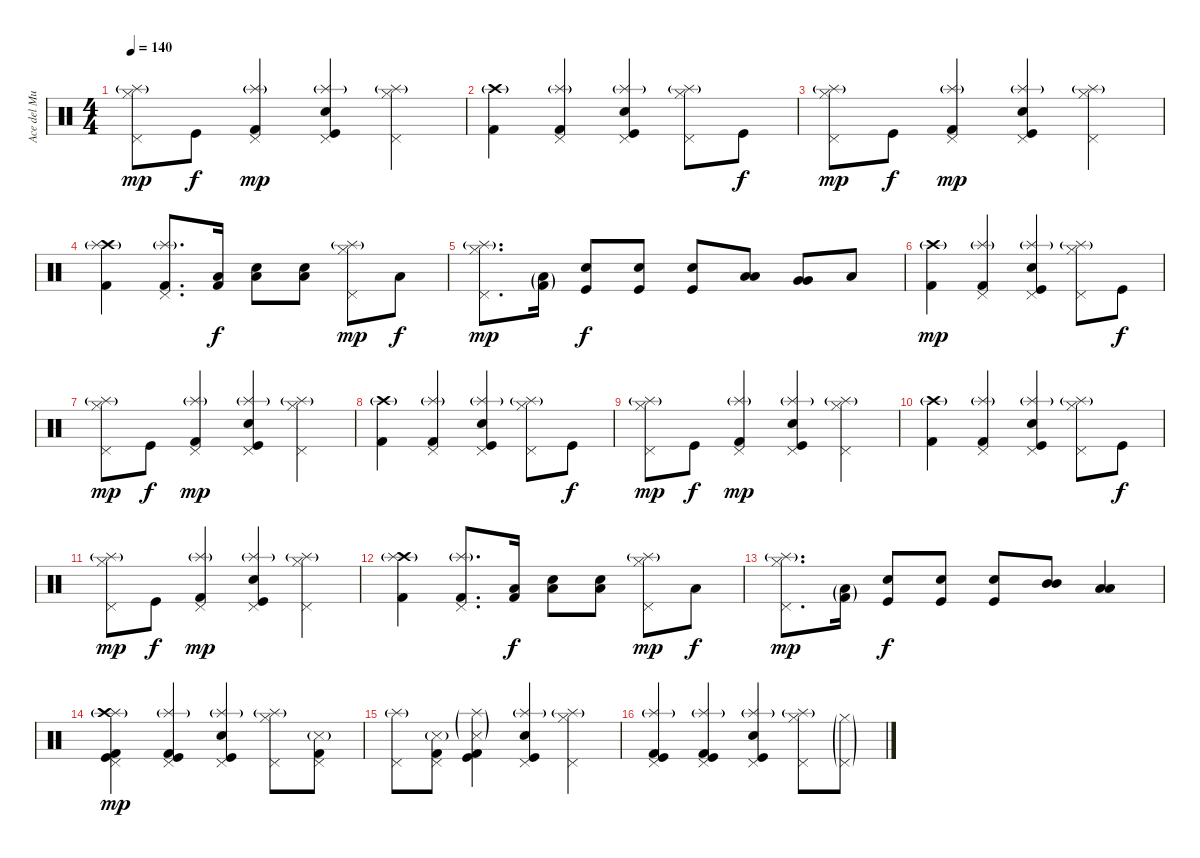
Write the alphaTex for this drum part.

\track ("Ace del Mundo(Drums)" "Ace del Mu") {instrument percussion}
\staff {score}
\articulation defaults
\ts (4 4)
\tempo 140
\clef neutral
\ks c
("Hi-Hat (closed)" "Pedal Hi-Hat (hit)" "Splash (hit)"{g}).8{dy mp} "Kick (hit)".8{dy f} ("Pedal Hi-Hat (hit)" "Kick (hit) 2" "Splash (hit)"{g}).4{dy mp} ("Pedal Hi-Hat (hit)" "Electric Snare (hit)" "Kick (hit)" "Splash (hit)"{g}).4 ("Hi-Hat (closed)" "Pedal Hi-Hat (hit)" "Splash (hit)"{g}).4 |
("Crash high (hit)"{g} "Kick (hit) 2").4 ("Pedal Hi-Hat (hit)" "Kick (hit) 2" "Splash (hit)"{g}).4 ("Pedal Hi-Hat (hit)" "Electric Snare (hit)" "Kick (hit)" "Splash (hit)"{g}).4 ("Hi-Hat (closed)" "Pedal Hi-Hat (hit)" "Splash (hit)"{g}).8 "Kick (hit)".8{dy f} |
("Hi-Hat (closed)" "Pedal Hi-Hat (hit)" "Splash (hit)"{g}).8{dy mp} "Kick (hit)".8{dy f} ("Pedal Hi-Hat (hit)" "Kick (hit) 2" "Splash (hit)"{g}).4{dy mp} ("Pedal Hi-Hat (hit)" "Electric Snare (hit)" "Kick (hit)" "Splash (hit)"{g}).4 ("Hi-Hat (closed)" "Pedal Hi-Hat (hit)" "Splash (hit)"{g}).4 |
("Crash high (hit)"{g} "Kick (hit) 2" "Splash (hit)"{g}).4 ("Pedal Hi-Hat (hit)" "Kick (hit) 2" "Splash (hit)"{g}).8{d} ("Low Tom (hit)" "Kick (hit) 2").16{dy f} ("Electric Snare (hit)" "Low Tom (hit)").8 ("Electric Snare (hit)" "Low Tom (hit)").8 ("Hi-Hat (closed)" "Pedal Hi-Hat (hit)" "Splash (hit)"{g}).8{dy mp} "Low Tom (hit)".8{dy f} |
("Pedal Hi-Hat (hit)" "Hi-Hat (closed)" "Splash (hit)"{g}).8{d dy mp} ("Low Tom (hit)"{g} "Kick (hit) 2"{g}).16 ("Electric Snare (hit)" "Kick (hit)").8{dy f} ("Electric Snare (hit)" "Kick (hit)").8 ("Electric Snare (hit)" "Kick (hit)").8 ("Low Tom (hit)" "Low Tom (hit)").8 ("Very Low Tom (hit)" "Very Low Tom (hit)").8 "Low Floor Tom (hit)".8 |
("Crash high (hit)"{g} "Kick (hit) 2").4{dy mp} ("Pedal Hi-Hat (hit)" "Kick (hit) 2" "Splash (hit)"{g}).4 ("Pedal Hi-Hat (hit)" "Electric Snare (hit)" "Kick (hit)" "Splash (hit)"{g}).4 ("Hi-Hat (closed)" "Pedal Hi-Hat (hit)" "Splash (hit)"{g}).8 "Kick (hit)".8{dy f} |
("Hi-Hat (closed)" "Pedal Hi-Hat (hit)" "Splash (hit)"{g}).8{dy mp} "Kick (hit)".8{dy f} ("Pedal Hi-Hat (hit)" "Kick (hit) 2" "Splash (hit)"{g}).4{dy mp} ("Pedal Hi-Hat (hit)" "Electric Snare (hit)" "Kick (hit)" "Splash (hit)"{g}).4 ("Hi-Hat (closed)" "Pedal Hi-Hat (hit)" "Splash (hit)"{g}).4 |
("Crash high (hit)"{g} "Kick (hit) 2").4 ("Pedal Hi-Hat (hit)" "Kick (hit) 2" "Splash (hit)"{g}).4 ("Pedal Hi-Hat (hit)" "Electric Snare (hit)" "Kick (hit)" "Splash (hit)"{g}).4 ("Hi-Hat (closed)" "Pedal Hi-Hat (hit)" "Splash (hit)"{g}).8 "Kick (hit)".8{dy f} |
("Hi-Hat (closed)" "Pedal Hi-Hat (hit)" "Splash (hit)"{g}).8{dy mp} "Kick (hit)".8{dy f} ("Pedal Hi-Hat (hit)" "Kick (hit) 2" "Splash (hit)"{g}).4{dy mp} ("Pedal Hi-Hat (hit)" "Electric Snare (hit)" "Kick (hit)" "Splash (hit)"{g}).4 ("Hi-Hat (closed)" "Pedal Hi-Hat (hit)" "Splash (hit)"{g}).4 |
("Crash high (hit)"{g} "Kick (hit) 2").4 ("Pedal Hi-Hat (hit)" "Kick (hit) 2" "Splash (hit)"{g}).4 ("Pedal Hi-Hat (hit)" "Electric Snare (hit)" "Kick (hit)" "Splash (hit)"{g}).4 ("Hi-Hat (closed)" "Pedal Hi-Hat (hit)" "Splash (hit)"{g}).8 "Kick (hit)".8{dy f} |
("Hi-Hat (closed)" "Pedal Hi-Hat (hit)" "Splash (hit)"{g}).8{dy mp} "Kick (hit)".8{dy f} ("Pedal Hi-Hat (hit)" "Kick (hit) 2" "Splash (hit)"{g}).4{dy mp} ("Pedal Hi-Hat (hit)" "Electric Snare (hit)" "Kick (hit)" "Splash (hit)"{g}).4 ("Hi-Hat (closed)" "Pedal Hi-Hat (hit)" "Splash (hit)"{g}).4 |
("Crash high (hit)"{g} "Kick (hit) 2" "Splash (hit)"{g}).4 ("Pedal Hi-Hat (hit)" "Kick (hit) 2" "Splash (hit)"{g}).8{d} ("Low Tom (hit)" "Kick (hit) 2").16{dy f} ("Electric Snare (hit)" "Low Tom (hit)").8 ("Electric Snare (hit)" "Low Tom (hit)").8 ("Hi-Hat (closed)" "Pedal Hi-Hat (hit)" "Splash (hit)"{g}).8{dy mp} "Low Tom (hit)".8{dy f} |
("Pedal Hi-Hat (hit)" "Hi-Hat (closed)" "Splash (hit)"{g}).8{d dy mp} ("Low Tom (hit)"{g} "Kick (hit) 2"{g}).16 ("Electric Snare (hit)" "Kick (hit)").8{dy f} ("Electric Snare (hit)" "Kick (hit)").8 ("Electric Snare (hit)" "Kick (hit)").8 ("Mid Tom (hit)" "Mid Tom (hit)").8 ("Low Tom (hit)" "Low Tom (hit)").4 |
("Pedal Hi-Hat (hit)" "Kick (hit) 2" "Kick (hit)" "Splash (hit)"{g} "Crash high (hit)"{g}).4{dy mp} ("Pedal Hi-Hat (hit)" "Kick (hit) 2" "Kick (hit)" "Splash (hit)"{g}).4 ("Pedal Hi-Hat (hit)" "Electric Snare (hit)" "Kick (hit)" "Splash (hit)"{g}).4 ("Pedal Hi-Hat (hit)" "Hi-Hat (closed)" "Splash (hit)"{g}).8 ("Pedal Hi-Hat (hit)" "Kick (hit) 2" "Snare (side stick) 3"{g}).8 |
("Pedal Hi-Hat (hit)" "Splash (hit)"{g}).8 ("Pedal Hi-Hat (hit)" "Kick (hit) 2" "Snare (side stick) 3"{g}).8 ("Kick (hit) 2" "Kick (hit)" "Snare (side stick) 3"{g} "Splash (hit)"{g}).4 ("Pedal Hi-Hat (hit)" "Electric Snare (hit)" "Kick (hit)" "Splash (hit)"{g}).4 ("Pedal Hi-Hat (hit)" "Hi-Hat (closed)" "Splash (hit)"{g}).4 |
("Pedal Hi-Hat (hit)" "Kick (hit) 2" "Kick (hit)" "Splash (hit)"{g}).4 ("Pedal Hi-Hat (hit)" "Kick (hit) 2" "Kick (hit)" "Splash (hit)"{g}).4 ("Pedal Hi-Hat (hit)" "Electric Snare (hit)" "Kick (hit)" "Splash (hit)"{g}).4 ("Pedal Hi-Hat (hit)" "Hi-Hat (closed)" "Splash (hit)"{g}).8 ("Pedal Hi-Hat (hit)"{g} "Hi-Hat (closed)"{g}).8
